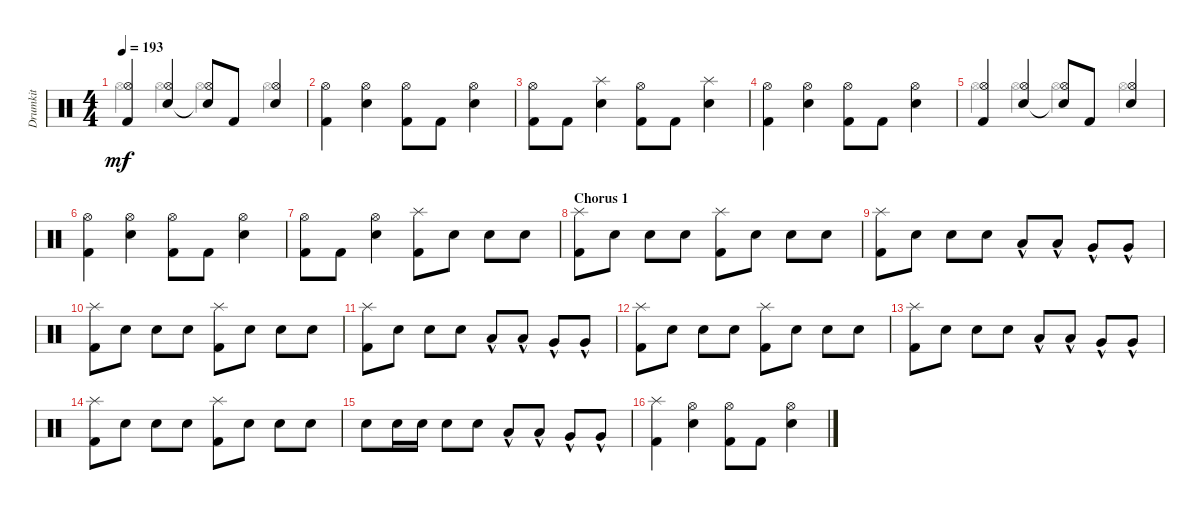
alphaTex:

\track ("Drumkit" "Drumkit") {instrument percussion}
\staff {score}
\articulation defaults
\voice
\ts (4 4)
\tempo 193
\clef neutral
\ks c
("Kick (hit) 2" "Hi-Hat (open)").4{dy mf} ("Snare (hit) 2" "Hi-Hat (open)").4 ("Snare (hit) 2"{t} "Hi-Hat (open)").8 "Kick (hit) 2".8 ("Snare (hit) 2" "Hi-Hat (open)").4 |
("Kick (hit) 2" "Hi-Hat (open)").4 ("Snare (hit) 2" "Hi-Hat (open)").4 ("Kick (hit) 2" "Hi-Hat (open)").8 "Kick (hit) 2".8 ("Snare (hit) 2" "Hi-Hat (open)").4 |
("Kick (hit) 2" "Hi-Hat (open)").8 "Kick (hit) 2".8 ("Snare (hit) 2" "Splash (hit)").4 ("Kick (hit) 2" "Hi-Hat (open)").8 "Kick (hit) 2".8 ("Snare (hit) 2" "Splash (hit)").4 |
("Kick (hit) 2" "Hi-Hat (open)").4 ("Snare (hit) 2" "Hi-Hat (open)").4 ("Kick (hit) 2" "Hi-Hat (open)").8 "Kick (hit) 2".8 ("Snare (hit) 2" "Hi-Hat (open)").4 |
("Kick (hit) 2" "Hi-Hat (open)").4 ("Snare (hit) 2" "Hi-Hat (open)").4 ("Snare (hit) 2"{t} "Hi-Hat (open)").8 "Kick (hit) 2".8 ("Snare (hit) 2" "Hi-Hat (open)").4 |
("Kick (hit) 2" "Hi-Hat (open)").4 ("Snare (hit) 2" "Hi-Hat (open)").4 ("Kick (hit) 2" "Hi-Hat (open)").8 "Kick (hit) 2".8 ("Snare (hit) 2" "Hi-Hat (open)").4 |
("Kick (hit) 2" "Hi-Hat (open)").8 "Kick (hit) 2".8 ("Snare (hit) 2" "Hi-Hat (open)").4 ("Kick (hit) 2" "Splash (hit)").8 "Snare (hit) 2".8 "Snare (hit) 2".8 "Snare (hit) 2".8 |
\section ("" "Chorus 1")
("Kick (hit) 2" "Splash (hit)").8 "Snare (hit) 2".8 "Snare (hit) 2".8 "Snare (hit) 2".8 ("Kick (hit) 2" "Splash (hit)").8 "Snare (hit) 2".8 "Snare (hit) 2".8 "Snare (hit) 2".8 |
("Kick (hit) 2" "Splash (hit)").8 "Snare (hit) 2".8 "Snare (hit) 2".8 "Snare (hit) 2".8 "Low Tom (hit)"{hac}.8 "Low Tom (hit)"{hac}.8 "Very Low Tom (hit)"{hac}.8 "Very Low Tom (hit)"{hac}.8 |
("Kick (hit) 2" "Splash (hit)").8 "Snare (hit) 2".8 "Snare (hit) 2".8 "Snare (hit) 2".8 ("Kick (hit) 2" "Splash (hit)").8 "Snare (hit) 2".8 "Snare (hit) 2".8 "Snare (hit) 2".8 |
("Kick (hit) 2" "Splash (hit)").8 "Snare (hit) 2".8 "Snare (hit) 2".8 "Snare (hit) 2".8 "Low Tom (hit)"{hac}.8 "Low Tom (hit)"{hac}.8 "Very Low Tom (hit)"{hac}.8 "Very Low Tom (hit)"{hac}.8 |
("Kick (hit) 2" "Splash (hit)").8 "Snare (hit) 2".8 "Snare (hit) 2".8 "Snare (hit) 2".8 ("Kick (hit) 2" "Splash (hit)").8 "Snare (hit) 2".8 "Snare (hit) 2".8 "Snare (hit) 2".8 |
("Kick (hit) 2" "Splash (hit)").8 "Snare (hit) 2".8 "Snare (hit) 2".8 "Snare (hit) 2".8 "Low Tom (hit)"{hac}.8 "Low Tom (hit)"{hac}.8 "Very Low Tom (hit)"{hac}.8 "Very Low Tom (hit)"{hac}.8 |
("Kick (hit) 2" "Splash (hit)").8 "Snare (hit) 2".8 "Snare (hit) 2".8 "Snare (hit) 2".8 ("Kick (hit) 2" "Splash (hit)").8 "Snare (hit) 2".8 "Snare (hit) 2".8 "Snare (hit) 2".8 |
"Snare (hit) 2".8 "Snare (hit) 2".16 "Snare (hit) 2".16 "Snare (hit) 2".8 "Snare (hit) 2".8 "Low Tom (hit)"{hac}.8 "Low Tom (hit)"{hac}.8 "Very Low Tom (hit)"{hac}.8 "Very Low Tom (hit)"{hac}.8 |
("Kick (hit) 2" "Splash (hit)").4 ("Snare (hit) 2" "Hi-Hat (open)").4 ("Kick (hit) 2" "Hi-Hat (open)").8 "Kick (hit) 2".8 ("Snare (hit) 2" "Hi-Hat (open)").4
\voice
\clef neutral
\ottava regular
\simile none
\ks c "Hi-Hat (open)".4{dy mf} "Hi-Hat (open)".4 "Hi-Hat (open)".4 "Hi-Hat (open)".4
|
|
|
|
"Hi-Hat (open)".4 "Hi-Hat (open)".4 "Hi-Hat (open)".4 "Hi-Hat (open)".4 |
|
|
|
|
|
|
|
|
|
|
